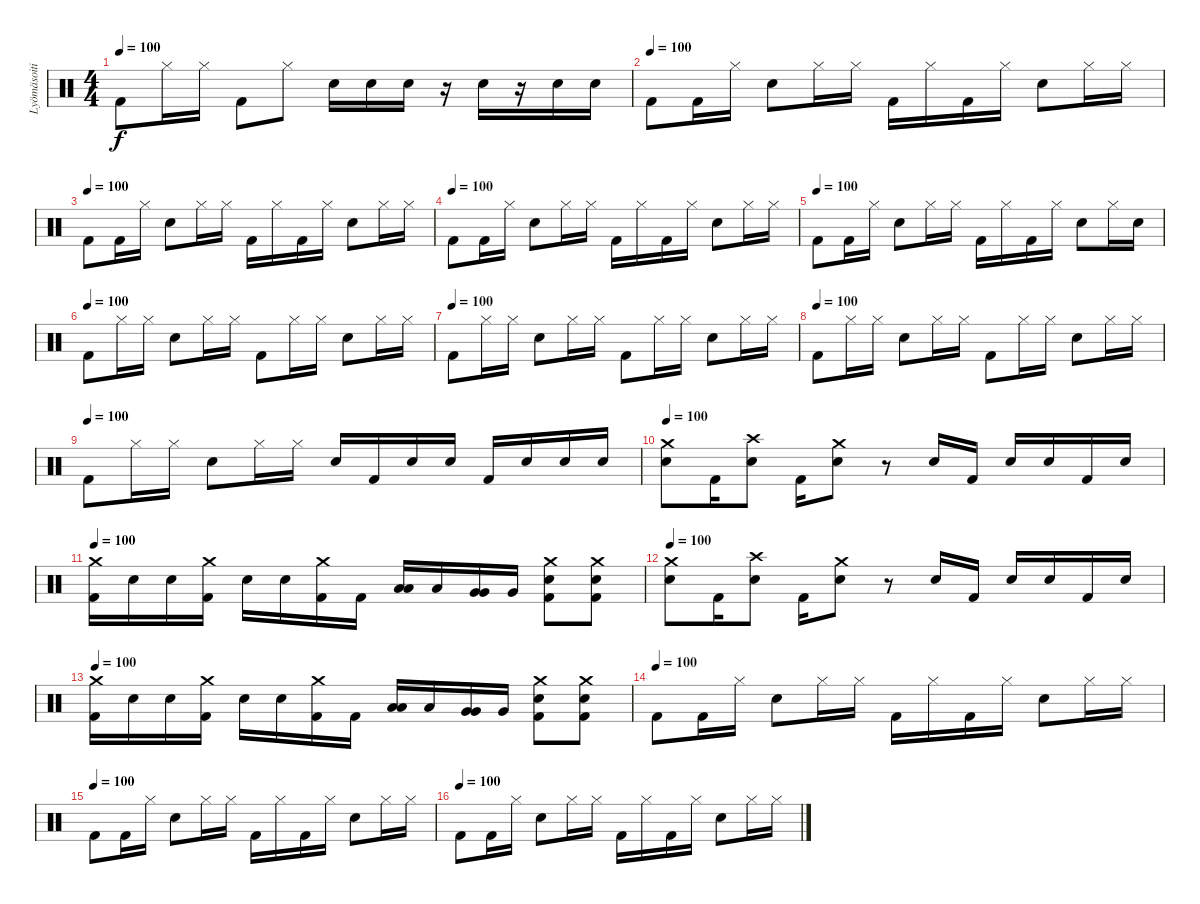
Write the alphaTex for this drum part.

\track ("Lyömäsoitin" "Lyömäsoiti") {instrument percussion}
\staff {score}
\articulation defaults
\ts (4 4)
\tempo 100
\clef neutral
\ks c "Kick (hit) 2".8{dy f} "Hi-Hat (closed)".16 "Hi-Hat (closed)".16 "Kick (hit) 2".8 "Hi-Hat (closed)".8 "Electric Snare (hit)".16 "Electric Snare (hit)".16 "Electric Snare (hit)".16
r.16 "Electric Snare (hit)".16 r.16 "Electric Snare (hit)".16 "Electric Snare (hit)".16 |
\tempo (100)
"Kick (hit) 2".8 "Kick (hit) 2".16 "Hi-Hat (closed)".16 "Electric Snare (hit)".8 "Hi-Hat (closed)".16 "Hi-Hat (closed)".16 "Kick (hit) 2".16 "Hi-Hat (closed)".16 "Kick (hit) 2".16 "Hi-Hat (closed)".16 "Electric Snare (hit)".8 "Hi-Hat (closed)".16 "Hi-Hat (closed)".16 |
\tempo (100)
"Kick (hit) 2".8 "Kick (hit) 2".16 "Hi-Hat (closed)".16 "Electric Snare (hit)".8 "Hi-Hat (closed)".16 "Hi-Hat (closed)".16 "Kick (hit) 2".16 "Hi-Hat (closed)".16 "Kick (hit) 2".16 "Hi-Hat (closed)".16 "Electric Snare (hit)".8 "Hi-Hat (closed)".16 "Hi-Hat (closed)".16 |
\tempo (100)
"Kick (hit) 2".8 "Kick (hit) 2".16 "Hi-Hat (closed)".16 "Electric Snare (hit)".8 "Hi-Hat (closed)".16 "Hi-Hat (closed)".16 "Kick (hit) 2".16 "Hi-Hat (closed)".16 "Kick (hit) 2".16 "Hi-Hat (closed)".16 "Electric Snare (hit)".8 "Hi-Hat (closed)".16 "Hi-Hat (closed)".16 |
\tempo (100)
"Kick (hit) 2".8 "Kick (hit) 2".16 "Hi-Hat (closed)".16 "Electric Snare (hit)".8 "Hi-Hat (closed)".16 "Hi-Hat (closed)".16 "Kick (hit) 2".16 "Hi-Hat (closed)".16 "Kick (hit) 2".16 "Hi-Hat (closed)".16 "Electric Snare (hit)".8 "Hi-Hat (closed)".16 "Electric Snare (hit)".16 |
\tempo (100)
"Kick (hit) 2".8 "Hi-Hat (closed)".16 "Hi-Hat (closed)".16 "Electric Snare (hit)".8 "Hi-Hat (closed)".16 "Hi-Hat (closed)".16 "Kick (hit) 2".8 "Hi-Hat (closed)".16 "Hi-Hat (closed)".16 "Electric Snare (hit)".8 "Hi-Hat (closed)".16 "Hi-Hat (closed)".16 |
\tempo (100)
"Kick (hit) 2".8 "Hi-Hat (closed)".16 "Hi-Hat (closed)".16 "Electric Snare (hit)".8 "Hi-Hat (closed)".16 "Hi-Hat (closed)".16 "Kick (hit) 2".8 "Hi-Hat (closed)".16 "Hi-Hat (closed)".16 "Electric Snare (hit)".8 "Hi-Hat (closed)".16 "Hi-Hat (closed)".16 |
\tempo (100)
"Kick (hit) 2".8 "Hi-Hat (closed)".16 "Hi-Hat (closed)".16 "Electric Snare (hit)".8 "Hi-Hat (closed)".16 "Hi-Hat (closed)".16 "Kick (hit) 2".8 "Hi-Hat (closed)".16 "Hi-Hat (closed)".16 "Electric Snare (hit)".8 "Hi-Hat (closed)".16 "Hi-Hat (closed)".16 |
\tempo (100)
"Kick (hit) 2".8 "Hi-Hat (closed)".16 "Hi-Hat (closed)".16 "Electric Snare (hit)".8 "Hi-Hat (closed)".16 "Hi-Hat (closed)".16 "Electric Snare (hit)".16 "Kick (hit) 2".16 "Electric Snare (hit)".16 "Electric Snare (hit)".16 "Kick (hit) 2".16 "Electric Snare (hit)".16 "Electric Snare (hit)".16 "Electric Snare (hit)".16 |
\tempo 100
("Electric Snare (hit)" "Crash medium (hit)").8 "Kick (hit) 2".16 ("Electric Snare (hit)" "Crash high (hit)").8 "Kick (hit) 2".16 ("Electric Snare (hit)" "Crash medium (hit)").8 r.8 "Electric Snare (hit)".16 "Kick (hit) 2".16 "Electric Snare (hit)".16 "Electric Snare (hit)".16 "Kick (hit) 2".16 "Electric Snare (hit)".16 |
\tempo 100
("Kick (hit) 2" "Crash medium (hit)").16 "Electric Snare (hit)".16 "Electric Snare (hit)".16 ("Kick (hit) 2" "Crash medium (hit)").16 "Electric Snare (hit)".16 "Electric Snare (hit)".16 ("Kick (hit) 2" "Crash medium (hit)").16 "Kick (hit) 2".16 ("Low Tom (hit)" "Low Tom (hit)").16 "Low Tom (hit)".16 ("Very Low Tom (hit)" "Very Low Tom (hit)").16 "Very Low Tom (hit)".16 ("Electric Snare (hit)" "Crash medium (hit)" "Kick (hit) 2").8 ("Electric Snare (hit)" "Crash medium (hit)" "Kick (hit) 2").8 |
\tempo 100
("Electric Snare (hit)" "Crash medium (hit)").8 "Kick (hit) 2".16 ("Electric Snare (hit)" "Crash high (hit)").8 "Kick (hit) 2".16 ("Electric Snare (hit)" "Crash medium (hit)").8 r.8 "Electric Snare (hit)".16 "Kick (hit) 2".16 "Electric Snare (hit)".16 "Electric Snare (hit)".16 "Kick (hit) 2".16 "Electric Snare (hit)".16 |
\tempo 100
("Kick (hit) 2" "Crash medium (hit)").16 "Electric Snare (hit)".16 "Electric Snare (hit)".16 ("Kick (hit) 2" "Crash medium (hit)").16 "Electric Snare (hit)".16 "Electric Snare (hit)".16 ("Kick (hit) 2" "Crash medium (hit)").16 "Kick (hit) 2".16 ("Low Tom (hit)" "Low Tom (hit)").16 "Low Tom (hit)".16 ("Very Low Tom (hit)" "Very Low Tom (hit)").16 "Very Low Tom (hit)".16 ("Electric Snare (hit)" "Crash medium (hit)" "Kick (hit) 2").8 ("Electric Snare (hit)" "Crash medium (hit)" "Kick (hit) 2").8 |
\tempo (100)
"Kick (hit) 2".8 "Kick (hit) 2".16 "Hi-Hat (closed)".16 "Electric Snare (hit)".8 "Hi-Hat (closed)".16 "Hi-Hat (closed)".16 "Kick (hit) 2".16 "Hi-Hat (closed)".16 "Kick (hit) 2".16 "Hi-Hat (closed)".16 "Electric Snare (hit)".8 "Hi-Hat (closed)".16 "Hi-Hat (closed)".16 |
\tempo (100)
"Kick (hit) 2".8 "Kick (hit) 2".16 "Hi-Hat (closed)".16 "Electric Snare (hit)".8 "Hi-Hat (closed)".16 "Hi-Hat (closed)".16 "Kick (hit) 2".16 "Hi-Hat (closed)".16 "Kick (hit) 2".16 "Hi-Hat (closed)".16 "Electric Snare (hit)".8 "Hi-Hat (closed)".16 "Hi-Hat (closed)".16 |
\tempo (100)
"Kick (hit) 2".8 "Kick (hit) 2".16 "Hi-Hat (closed)".16 "Electric Snare (hit)".8 "Hi-Hat (closed)".16 "Hi-Hat (closed)".16 "Kick (hit) 2".16 "Hi-Hat (closed)".16 "Kick (hit) 2".16 "Hi-Hat (closed)".16 "Electric Snare (hit)".8 "Hi-Hat (closed)".16 "Hi-Hat (closed)".16
